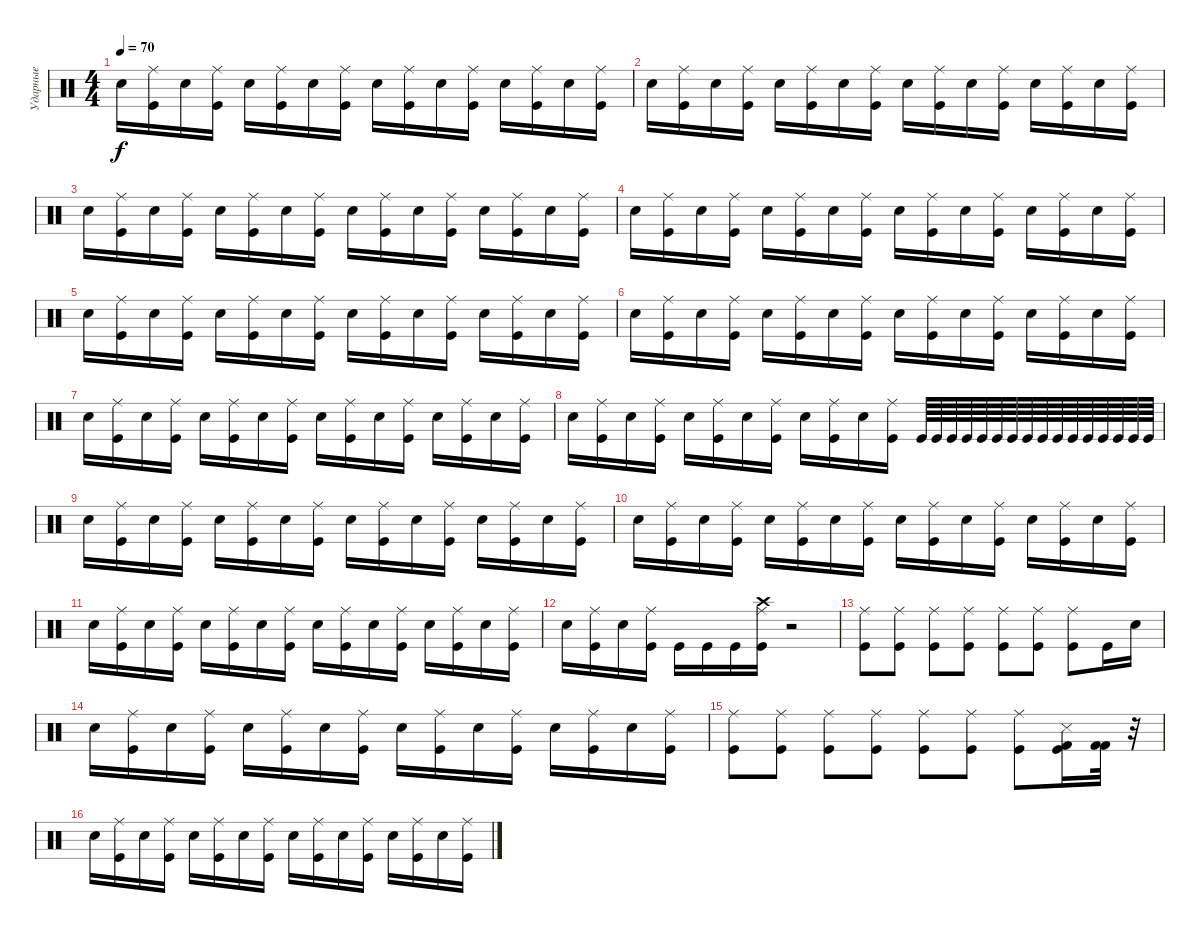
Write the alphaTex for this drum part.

\track ("Ударные" "Ударные") {instrument percussion}
\staff {score}
\articulation defaults
\ts (4 4)
\tempo 70
\clef neutral
\ks c "Snare (hit) 2".16{dy f}
("Kick (hit)" "Ride (middle)").16 "Snare (hit) 2".16 ("Kick (hit)" "Ride (middle)").16 "Snare (hit) 2".16 ("Kick (hit)" "Ride (middle)").16 "Snare (hit) 2".16 ("Kick (hit)" "Ride (middle)").16 "Snare (hit) 2".16 ("Kick (hit)" "Ride (middle)").16 "Snare (hit) 2".16 ("Kick (hit)" "Ride (middle)").16 "Snare (hit) 2".16 ("Kick (hit)" "Ride (middle)").16 "Snare (hit) 2".16 ("Kick (hit)" "Ride (middle)").16 |
"Snare (hit) 2".16 ("Kick (hit)" "Ride (middle)").16 "Snare (hit) 2".16 ("Kick (hit)" "Ride (middle)").16 "Snare (hit) 2".16 ("Kick (hit)" "Ride (middle)").16 "Snare (hit) 2".16 ("Kick (hit)" "Ride (middle)").16 "Snare (hit) 2".16 ("Kick (hit)" "Ride (middle)").16 "Snare (hit) 2".16 ("Kick (hit)" "Ride (middle)").16 "Snare (hit) 2".16 ("Kick (hit)" "Ride (middle)").16 "Snare (hit) 2".16 ("Kick (hit)" "Ride (middle)").16 |
"Snare (hit) 2".16 ("Kick (hit)" "Ride (middle)").16 "Snare (hit) 2".16 ("Kick (hit)" "Ride (middle)").16 "Snare (hit) 2".16 ("Kick (hit)" "Ride (middle)").16 "Snare (hit) 2".16 ("Kick (hit)" "Ride (middle)").16 "Snare (hit) 2".16 ("Kick (hit)" "Ride (middle)").16 "Snare (hit) 2".16 ("Kick (hit)" "Ride (middle)").16 "Snare (hit) 2".16 ("Kick (hit)" "Ride (middle)").16 "Snare (hit) 2".16 ("Kick (hit)" "Ride (middle)").16 |
"Snare (hit) 2".16 ("Kick (hit)" "Ride (middle)").16 "Snare (hit) 2".16 ("Kick (hit)" "Ride (middle)").16 "Snare (hit) 2".16 ("Kick (hit)" "Ride (middle)").16 "Snare (hit) 2".16 ("Kick (hit)" "Ride (middle)").16 "Snare (hit) 2".16 ("Kick (hit)" "Ride (middle)").16 "Snare (hit) 2".16 ("Kick (hit)" "Ride (middle)").16 "Snare (hit) 2".16 ("Kick (hit)" "Ride (middle)").16 "Snare (hit) 2".16 ("Kick (hit)" "Ride (middle)").16 |
"Snare (hit) 2".16 ("Kick (hit)" "Ride (middle)").16 "Snare (hit) 2".16 ("Kick (hit)" "Ride (middle)").16 "Snare (hit) 2".16 ("Kick (hit)" "Ride (middle)").16 "Snare (hit) 2".16 ("Kick (hit)" "Ride (middle)").16 "Snare (hit) 2".16 ("Kick (hit)" "Ride (middle)").16 "Snare (hit) 2".16 ("Kick (hit)" "Ride (middle)").16 "Snare (hit) 2".16 ("Kick (hit)" "Ride (middle)").16 "Snare (hit) 2".16 ("Kick (hit)" "Ride (middle)").16 |
"Snare (hit) 2".16 ("Kick (hit)" "Ride (middle)").16 "Snare (hit) 2".16 ("Kick (hit)" "Ride (middle)").16 "Snare (hit) 2".16 ("Kick (hit)" "Ride (middle)").16 "Snare (hit) 2".16 ("Kick (hit)" "Ride (middle)").16 "Snare (hit) 2".16 ("Kick (hit)" "Ride (middle)").16 "Snare (hit) 2".16 ("Kick (hit)" "Ride (middle)").16 "Snare (hit) 2".16 ("Kick (hit)" "Ride (middle)").16 "Snare (hit) 2".16 ("Kick (hit)" "Ride (middle)").16 |
"Snare (hit) 2".16 ("Kick (hit)" "Ride (middle)").16 "Snare (hit) 2".16 ("Kick (hit)" "Ride (middle)").16 "Snare (hit) 2".16 ("Kick (hit)" "Ride (middle)").16 "Snare (hit) 2".16 ("Kick (hit)" "Ride (middle)").16 "Snare (hit) 2".16 ("Kick (hit)" "Ride (middle)").16 "Snare (hit) 2".16 ("Kick (hit)" "Ride (middle)").16 "Snare (hit) 2".16 ("Kick (hit)" "Ride (middle)").16 "Snare (hit) 2".16 ("Kick (hit)" "Ride (middle)").16 |
"Snare (hit) 2".16 ("Kick (hit)" "Ride (middle)").16 "Snare (hit) 2".16 ("Kick (hit)" "Ride (middle)").16 "Snare (hit) 2".16 ("Kick (hit)" "Ride (middle)").16 "Snare (hit) 2".16 ("Kick (hit)" "Ride (middle)").16 "Snare (hit) 2".16 ("Kick (hit)" "Ride (middle)").16 "Snare (hit) 2".16 ("Kick (hit)" "Ride (middle)").16 "Kick (hit)".64 "Kick (hit)".64 "Kick (hit)".64 "Kick (hit)".64 "Kick (hit)".64 "Kick (hit)".64 "Kick (hit)".64 "Kick (hit)".64 "Kick (hit)".64 "Kick (hit)".64 "Kick (hit)".64 "Kick (hit)".64 "Kick (hit)".64 "Kick (hit)".64 "Kick (hit)".64 "Kick (hit)".64 |
"Snare (hit) 2".16 ("Kick (hit)" "Ride (middle)").16 "Snare (hit) 2".16 ("Kick (hit)" "Ride (middle)").16 "Snare (hit) 2".16 ("Kick (hit)" "Ride (middle)").16 "Snare (hit) 2".16 ("Kick (hit)" "Ride (middle)").16 "Snare (hit) 2".16 ("Kick (hit)" "Ride (middle)").16 "Snare (hit) 2".16 ("Kick (hit)" "Ride (middle)").16 "Snare (hit) 2".16 ("Kick (hit)" "Ride (middle)").16 "Snare (hit) 2".16 ("Kick (hit)" "Ride (middle)").16 |
"Snare (hit) 2".16 ("Kick (hit)" "Ride (middle)").16 "Snare (hit) 2".16 ("Kick (hit)" "Ride (middle)").16 "Snare (hit) 2".16 ("Kick (hit)" "Ride (middle)").16 "Snare (hit) 2".16 ("Kick (hit)" "Ride (middle)").16 "Snare (hit) 2".16 ("Kick (hit)" "Ride (middle)").16 "Snare (hit) 2".16 ("Kick (hit)" "Ride (middle)").16 "Snare (hit) 2".16 ("Kick (hit)" "Ride (middle)").16 "Snare (hit) 2".16 ("Kick (hit)" "Ride (middle)").16 |
"Snare (hit) 2".16 ("Kick (hit)" "Ride (middle)").16 "Snare (hit) 2".16 ("Kick (hit)" "Ride (middle)").16 "Snare (hit) 2".16 ("Kick (hit)" "Ride (middle)").16 "Snare (hit) 2".16 ("Kick (hit)" "Ride (middle)").16 "Snare (hit) 2".16 ("Kick (hit)" "Ride (middle)").16 "Snare (hit) 2".16 ("Kick (hit)" "Ride (middle)").16 "Snare (hit) 2".16 ("Kick (hit)" "Ride (middle)").16 "Snare (hit) 2".16 ("Kick (hit)" "Ride (middle)").16 |
"Snare (hit) 2".16 ("Kick (hit)" "Ride (middle)").16 "Snare (hit) 2".16 ("Kick (hit)" "Ride (middle)").16 "Kick (hit)".16 "Kick (hit)".16 "Kick (hit)".16 ("Kick (hit)" "Crash high (hit)" "Ride (middle)").16 r.2 |
("Kick (hit)" "Ride (middle)").8 ("Kick (hit)" "Ride (middle)").8 ("Kick (hit)" "Ride (middle)").8 ("Kick (hit)" "Ride (middle)").8 ("Kick (hit)" "Ride (middle)").8 ("Kick (hit)" "Ride (middle)").8 ("Kick (hit)" "Ride (middle)").8 "Kick (hit)".16 "Snare (hit) 2".16 |
"Snare (hit) 2".16 ("Kick (hit)" "Ride (middle)").16 "Snare (hit) 2".16 ("Kick (hit)" "Ride (middle)").16 "Snare (hit) 2".16 ("Kick (hit)" "Ride (middle)").16 "Snare (hit) 2".16 ("Kick (hit)" "Ride (middle)").16 "Snare (hit) 2".16 ("Kick (hit)" "Ride (middle)").16 "Snare (hit) 2".16 ("Kick (hit)" "Ride (middle)").16 "Snare (hit) 2".16 ("Kick (hit)" "Ride (middle)").16 "Snare (hit) 2".16 ("Kick (hit)" "Ride (middle)").16 |
("Kick (hit)" "Ride (middle)").8 ("Kick (hit)" "Ride (middle)").8 ("Kick (hit)" "Ride (middle)").8 ("Kick (hit)" "Ride (middle)").8 ("Kick (hit)" "Ride (middle)").8 ("Kick (hit)" "Ride (middle)").8 ("Kick (hit)" "Ride (middle)").8 ("Kick (hit) 2" "Snare (side stick) 3" "Kick (hit)").16 ("Kick (hit) 2" "Kick (hit) 2").32 r.32 |
"Snare (hit) 2".16 ("Kick (hit)" "Ride (middle)").16 "Snare (hit) 2".16 ("Kick (hit)" "Ride (middle)").16 "Snare (hit) 2".16 ("Kick (hit)" "Ride (middle)").16 "Snare (hit) 2".16 ("Kick (hit)" "Ride (middle)").16 "Snare (hit) 2".16 ("Kick (hit)" "Ride (middle)").16 "Snare (hit) 2".16 ("Kick (hit)" "Ride (middle)").16 "Snare (hit) 2".16 ("Kick (hit)" "Ride (middle)").16 "Snare (hit) 2".16 ("Kick (hit)" "Ride (middle)").16
